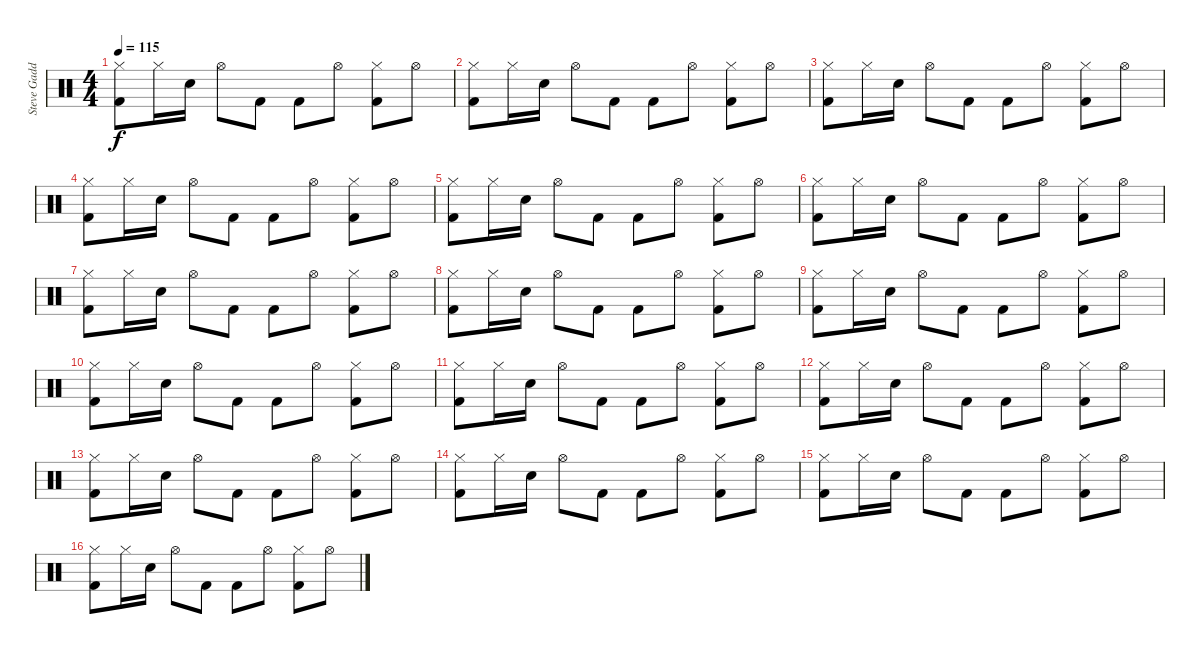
\track ("Steve Gadd" "Steve Gadd") {instrument percussion}
\staff {score}
\articulation defaults
\ts (4 4)
\tempo 115
\clef neutral
\ks c
("Hi-Hat (closed)" "Kick (hit) 2").8{dy f} "Hi-Hat (closed)".16 "Electric Snare (hit)".16 "Hi-Hat (open)".8 "Kick (hit) 2".8 "Kick (hit) 2".8 "Hi-Hat (open)".8 ("Hi-Hat (closed)" "Kick (hit) 2").8 "Hi-Hat (open)".8 |
("Hi-Hat (closed)" "Kick (hit) 2").8 "Hi-Hat (closed)".16 "Electric Snare (hit)".16 "Hi-Hat (open)".8 "Kick (hit) 2".8 "Kick (hit) 2".8 "Hi-Hat (open)".8 ("Hi-Hat (closed)" "Kick (hit) 2").8 "Hi-Hat (open)".8 |
("Hi-Hat (closed)" "Kick (hit) 2").8 "Hi-Hat (closed)".16 "Electric Snare (hit)".16 "Hi-Hat (open)".8 "Kick (hit) 2".8 "Kick (hit) 2".8 "Hi-Hat (open)".8 ("Hi-Hat (closed)" "Kick (hit) 2").8 "Hi-Hat (open)".8 |
("Hi-Hat (closed)" "Kick (hit) 2").8 "Hi-Hat (closed)".16 "Electric Snare (hit)".16 "Hi-Hat (open)".8 "Kick (hit) 2".8 "Kick (hit) 2".8 "Hi-Hat (open)".8 ("Hi-Hat (closed)" "Kick (hit) 2").8 "Hi-Hat (open)".8 |
("Hi-Hat (closed)" "Kick (hit) 2").8 "Hi-Hat (closed)".16 "Electric Snare (hit)".16 "Hi-Hat (open)".8 "Kick (hit) 2".8 "Kick (hit) 2".8 "Hi-Hat (open)".8 ("Hi-Hat (closed)" "Kick (hit) 2").8 "Hi-Hat (open)".8 |
("Hi-Hat (closed)" "Kick (hit) 2").8 "Hi-Hat (closed)".16 "Electric Snare (hit)".16 "Hi-Hat (open)".8 "Kick (hit) 2".8 "Kick (hit) 2".8 "Hi-Hat (open)".8 ("Hi-Hat (closed)" "Kick (hit) 2").8 "Hi-Hat (open)".8 |
("Hi-Hat (closed)" "Kick (hit) 2").8 "Hi-Hat (closed)".16 "Electric Snare (hit)".16 "Hi-Hat (open)".8 "Kick (hit) 2".8 "Kick (hit) 2".8 "Hi-Hat (open)".8 ("Hi-Hat (closed)" "Kick (hit) 2").8 "Hi-Hat (open)".8 |
("Hi-Hat (closed)" "Kick (hit) 2").8 "Hi-Hat (closed)".16 "Electric Snare (hit)".16 "Hi-Hat (open)".8 "Kick (hit) 2".8 "Kick (hit) 2".8 "Hi-Hat (open)".8 ("Hi-Hat (closed)" "Kick (hit) 2").8 "Hi-Hat (open)".8 |
("Hi-Hat (closed)" "Kick (hit) 2").8 "Hi-Hat (closed)".16 "Electric Snare (hit)".16 "Hi-Hat (open)".8 "Kick (hit) 2".8 "Kick (hit) 2".8 "Hi-Hat (open)".8 ("Hi-Hat (closed)" "Kick (hit) 2").8 "Hi-Hat (open)".8 |
("Hi-Hat (closed)" "Kick (hit) 2").8 "Hi-Hat (closed)".16 "Electric Snare (hit)".16 "Hi-Hat (open)".8 "Kick (hit) 2".8 "Kick (hit) 2".8 "Hi-Hat (open)".8 ("Hi-Hat (closed)" "Kick (hit) 2").8 "Hi-Hat (open)".8 |
("Hi-Hat (closed)" "Kick (hit) 2").8 "Hi-Hat (closed)".16 "Electric Snare (hit)".16 "Hi-Hat (open)".8 "Kick (hit) 2".8 "Kick (hit) 2".8 "Hi-Hat (open)".8 ("Hi-Hat (closed)" "Kick (hit) 2").8 "Hi-Hat (open)".8 |
("Hi-Hat (closed)" "Kick (hit) 2").8 "Hi-Hat (closed)".16 "Electric Snare (hit)".16 "Hi-Hat (open)".8 "Kick (hit) 2".8 "Kick (hit) 2".8 "Hi-Hat (open)".8 ("Hi-Hat (closed)" "Kick (hit) 2").8 "Hi-Hat (open)".8 |
("Hi-Hat (closed)" "Kick (hit) 2").8 "Hi-Hat (closed)".16 "Electric Snare (hit)".16 "Hi-Hat (open)".8 "Kick (hit) 2".8 "Kick (hit) 2".8 "Hi-Hat (open)".8 ("Hi-Hat (closed)" "Kick (hit) 2").8 "Hi-Hat (open)".8 |
("Hi-Hat (closed)" "Kick (hit) 2").8 "Hi-Hat (closed)".16 "Electric Snare (hit)".16 "Hi-Hat (open)".8 "Kick (hit) 2".8 "Kick (hit) 2".8 "Hi-Hat (open)".8 ("Hi-Hat (closed)" "Kick (hit) 2").8 "Hi-Hat (open)".8 |
("Hi-Hat (closed)" "Kick (hit) 2").8 "Hi-Hat (closed)".16 "Electric Snare (hit)".16 "Hi-Hat (open)".8 "Kick (hit) 2".8 "Kick (hit) 2".8 "Hi-Hat (open)".8 ("Hi-Hat (closed)" "Kick (hit) 2").8 "Hi-Hat (open)".8 |
("Hi-Hat (closed)" "Kick (hit) 2").8 "Hi-Hat (closed)".16 "Electric Snare (hit)".16 "Hi-Hat (open)".8 "Kick (hit) 2".8 "Kick (hit) 2".8 "Hi-Hat (open)".8 ("Hi-Hat (closed)" "Kick (hit) 2").8 "Hi-Hat (open)".8
